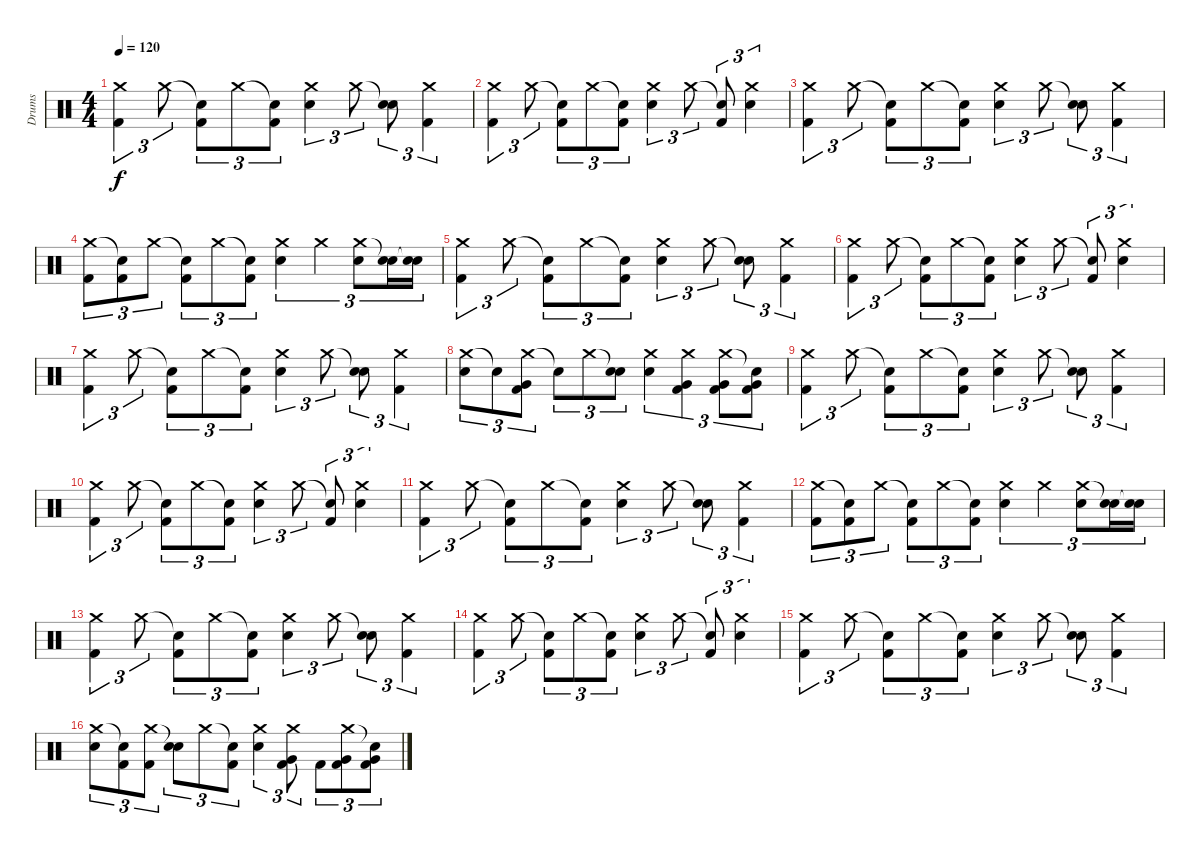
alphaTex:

\track ("Drums" "Drums") {instrument percussion}
\staff {score}
\articulation defaults
\ts (4 4)
\tempo 120
\clef neutral
\ks c
("Crash medium (hit)" "Kick (hit) 2").4{tu (3 2) dy f} "Crash medium (hit)".8{tu (3 2)} ("Snare (hit)"{t} "Kick (hit) 2").8{tu (3 2)} "Crash medium (hit)".8{tu (3 2)} ("Snare (hit)"{t} "Kick (hit) 2").8{tu (3 2)} ("Crash medium (hit)" "Electric Snare (hit)").4{tu (3 2)} "Crash medium (hit)".8{tu (3 2)} ("Snare (hit)"{t} "Electric Snare (hit)").8{tu (3 2)} ("Crash medium (hit)" "Kick (hit) 2").4{tu (3 2)} |
("Crash medium (hit)" "Kick (hit) 2").4{tu (3 2)} "Crash medium (hit)".8{tu (3 2)} ("Snare (hit)"{t} "Kick (hit) 2").8{tu (3 2)} "Crash medium (hit)".8{tu (3 2)} ("Snare (hit)"{t} "Kick (hit) 2").8{tu (3 2)} ("Crash medium (hit)" "Electric Snare (hit)").4{tu (3 2)} "Crash medium (hit)".8{tu (3 2)} ("Snare (hit)"{t} "Kick (hit) 2").8{tu (3 2)} ("Crash medium (hit)" "Electric Snare (hit)").4{tu (3 2)} |
("Crash medium (hit)" "Kick (hit) 2").4{tu (3 2)} "Crash medium (hit)".8{tu (3 2)} ("Snare (hit)"{t} "Kick (hit) 2").8{tu (3 2)} "Crash medium (hit)".8{tu (3 2)} ("Snare (hit)"{t} "Kick (hit) 2").8{tu (3 2)} ("Crash medium (hit)" "Electric Snare (hit)").4{tu (3 2)} "Crash medium (hit)".8{tu (3 2)} ("Snare (hit)"{t} "Electric Snare (hit)").8{tu (3 2)} ("Crash medium (hit)" "Kick (hit) 2").4{tu (3 2)} |
("Crash medium (hit)" "Kick (hit) 2").8{tu (3 2)} ("Snare (hit)"{t} "Kick (hit) 2").8{tu (3 2)} "Crash medium (hit)".8{tu (3 2)} ("Snare (hit)"{t} "Kick (hit) 2").8{tu (3 2)} "Crash medium (hit)".8{tu (3 2)} ("Snare (hit)"{t} "Kick (hit) 2").8{tu (3 2)} ("Crash medium (hit)" "Electric Snare (hit)").4{tu (3 2)} "Crash medium (hit)".4{tu (3 2)} ("Crash medium (hit)" "Electric Snare (hit)").8{tu (3 2)} ("Snare (hit)"{t} "Electric Snare (hit)").16{tu (3 2)} ("Snare (hit)"{t} "Electric Snare (hit)").16{tu (3 2)} |
("Crash medium (hit)" "Kick (hit) 2").4{tu (3 2)} "Crash medium (hit)".8{tu (3 2)} ("Snare (hit)"{t} "Kick (hit) 2").8{tu (3 2)} "Crash medium (hit)".8{tu (3 2)} ("Snare (hit)"{t} "Kick (hit) 2").8{tu (3 2)} ("Crash medium (hit)" "Electric Snare (hit)").4{tu (3 2)} "Crash medium (hit)".8{tu (3 2)} ("Snare (hit)"{t} "Electric Snare (hit)").8{tu (3 2)} ("Crash medium (hit)" "Kick (hit) 2").4{tu (3 2)} |
("Crash medium (hit)" "Kick (hit) 2").4{tu (3 2)} "Crash medium (hit)".8{tu (3 2)} ("Snare (hit)"{t} "Kick (hit) 2").8{tu (3 2)} "Crash medium (hit)".8{tu (3 2)} ("Snare (hit)"{t} "Kick (hit) 2").8{tu (3 2)} ("Crash medium (hit)" "Electric Snare (hit)").4{tu (3 2)} "Crash medium (hit)".8{tu (3 2)} ("Snare (hit)"{t} "Kick (hit) 2").8{tu (3 2)} ("Crash medium (hit)" "Electric Snare (hit)").4{tu (3 2)} |
("Crash medium (hit)" "Kick (hit) 2").4{tu (3 2)} "Crash medium (hit)".8{tu (3 2)} ("Snare (hit)"{t} "Kick (hit) 2").8{tu (3 2)} "Crash medium (hit)".8{tu (3 2)} ("Snare (hit)"{t} "Kick (hit) 2").8{tu (3 2)} ("Crash medium (hit)" "Electric Snare (hit)").4{tu (3 2)} "Crash medium (hit)".8{tu (3 2)} ("Snare (hit)"{t} "Electric Snare (hit)").8{tu (3 2)} ("Crash medium (hit)" "Kick (hit) 2").4{tu (3 2)} |
("Crash medium (hit)" "Electric Snare (hit)").8{tu (3 2)} "Snare (hit)"{t}.8{tu (3 2)} ("Crash medium (hit)" "Very Low Tom (hit)" "Kick (hit) 2").8{tu (3 2)} "Snare (hit)"{t}.8{tu (3 2)} "Crash medium (hit)".8{tu (3 2)} ("Snare (hit)"{t} "Electric Snare (hit)").8{tu (3 2)} ("Crash medium (hit)" "Electric Snare (hit)").4{tu (3 2)} ("Crash medium (hit)" "Very Low Tom (hit)" "Kick (hit) 2").4{tu (3 2)} ("Crash medium (hit)" "Very Low Tom (hit)" "Kick (hit) 2").8{tu (3 2)} ("Snare (hit)"{t} "Very Low Tom (hit)" "Kick (hit) 2").8{tu (3 2)} |
("Crash medium (hit)" "Kick (hit) 2").4{tu (3 2)} "Crash medium (hit)".8{tu (3 2)} ("Snare (hit)"{t} "Kick (hit) 2").8{tu (3 2)} "Crash medium (hit)".8{tu (3 2)} ("Snare (hit)"{t} "Kick (hit) 2").8{tu (3 2)} ("Crash medium (hit)" "Electric Snare (hit)").4{tu (3 2)} "Crash medium (hit)".8{tu (3 2)} ("Snare (hit)"{t} "Electric Snare (hit)").8{tu (3 2)} ("Crash medium (hit)" "Kick (hit) 2").4{tu (3 2)} |
("Crash medium (hit)" "Kick (hit) 2").4{tu (3 2)} "Crash medium (hit)".8{tu (3 2)} ("Snare (hit)"{t} "Kick (hit) 2").8{tu (3 2)} "Crash medium (hit)".8{tu (3 2)} ("Snare (hit)"{t} "Kick (hit) 2").8{tu (3 2)} ("Crash medium (hit)" "Electric Snare (hit)").4{tu (3 2)} "Crash medium (hit)".8{tu (3 2)} ("Snare (hit)"{t} "Kick (hit) 2").8{tu (3 2)} ("Crash medium (hit)" "Electric Snare (hit)").4{tu (3 2)} |
("Crash medium (hit)" "Kick (hit) 2").4{tu (3 2)} "Crash medium (hit)".8{tu (3 2)} ("Snare (hit)"{t} "Kick (hit) 2").8{tu (3 2)} "Crash medium (hit)".8{tu (3 2)} ("Snare (hit)"{t} "Kick (hit) 2").8{tu (3 2)} ("Crash medium (hit)" "Electric Snare (hit)").4{tu (3 2)} "Crash medium (hit)".8{tu (3 2)} ("Snare (hit)"{t} "Electric Snare (hit)").8{tu (3 2)} ("Crash medium (hit)" "Kick (hit) 2").4{tu (3 2)} |
("Crash medium (hit)" "Kick (hit) 2").8{tu (3 2)} ("Snare (hit)"{t} "Kick (hit) 2").8{tu (3 2)} "Crash medium (hit)".8{tu (3 2)} ("Snare (hit)"{t} "Kick (hit) 2").8{tu (3 2)} "Crash medium (hit)".8{tu (3 2)} ("Snare (hit)"{t} "Kick (hit) 2").8{tu (3 2)} ("Crash medium (hit)" "Electric Snare (hit)").4{tu (3 2)} "Crash medium (hit)".4{tu (3 2)} ("Crash medium (hit)" "Electric Snare (hit)").8{tu (3 2)} ("Snare (hit)"{t} "Electric Snare (hit)").16{tu (3 2)} ("Snare (hit)"{t} "Electric Snare (hit)").16{tu (3 2)} |
("Crash medium (hit)" "Kick (hit) 2").4{tu (3 2)} "Crash medium (hit)".8{tu (3 2)} ("Snare (hit)"{t} "Kick (hit) 2").8{tu (3 2)} "Crash medium (hit)".8{tu (3 2)} ("Snare (hit)"{t} "Kick (hit) 2").8{tu (3 2)} ("Crash medium (hit)" "Electric Snare (hit)").4{tu (3 2)} "Crash medium (hit)".8{tu (3 2)} ("Snare (hit)"{t} "Electric Snare (hit)").8{tu (3 2)} ("Crash medium (hit)" "Kick (hit) 2").4{tu (3 2)} |
("Crash medium (hit)" "Kick (hit) 2").4{tu (3 2)} "Crash medium (hit)".8{tu (3 2)} ("Snare (hit)"{t} "Kick (hit) 2").8{tu (3 2)} "Crash medium (hit)".8{tu (3 2)} ("Snare (hit)"{t} "Kick (hit) 2").8{tu (3 2)} ("Crash medium (hit)" "Electric Snare (hit)").4{tu (3 2)} "Crash medium (hit)".8{tu (3 2)} ("Snare (hit)"{t} "Kick (hit) 2").8{tu (3 2)} ("Crash medium (hit)" "Electric Snare (hit)").4{tu (3 2)} |
("Crash medium (hit)" "Kick (hit) 2").4{tu (3 2)} "Crash medium (hit)".8{tu (3 2)} ("Snare (hit)"{t} "Kick (hit) 2").8{tu (3 2)} "Crash medium (hit)".8{tu (3 2)} ("Snare (hit)"{t} "Kick (hit) 2").8{tu (3 2)} ("Crash medium (hit)" "Electric Snare (hit)").4{tu (3 2)} "Crash medium (hit)".8{tu (3 2)} ("Snare (hit)"{t} "Electric Snare (hit)").8{tu (3 2)} ("Crash medium (hit)" "Kick (hit) 2").4{tu (3 2)} |
("Crash medium (hit)" "Electric Snare (hit)").8{tu (3 2)} ("Snare (hit)"{t} "Kick (hit) 2").8{tu (3 2)} ("Crash medium (hit)" "Kick (hit) 2").8{tu (3 2)} ("Snare (hit)"{t} "Electric Snare (hit)").8{tu (3 2)} "Crash medium (hit)".8{tu (3 2)} ("Snare (hit)"{t} "Kick (hit) 2").8{tu (3 2)} ("Crash medium (hit)" "Electric Snare (hit)").4{tu (3 2)} ("Crash medium (hit)" "Very Low Tom (hit)" "Kick (hit) 2").8{tu (3 2)} "Kick (hit) 2".8{tu (3 2)} ("Crash medium (hit)" "Very Low Tom (hit)" "Kick (hit) 2").8{tu (3 2)} ("Snare (hit)"{t} "Very Low Tom (hit)" "Kick (hit) 2").8{tu (3 2)}
